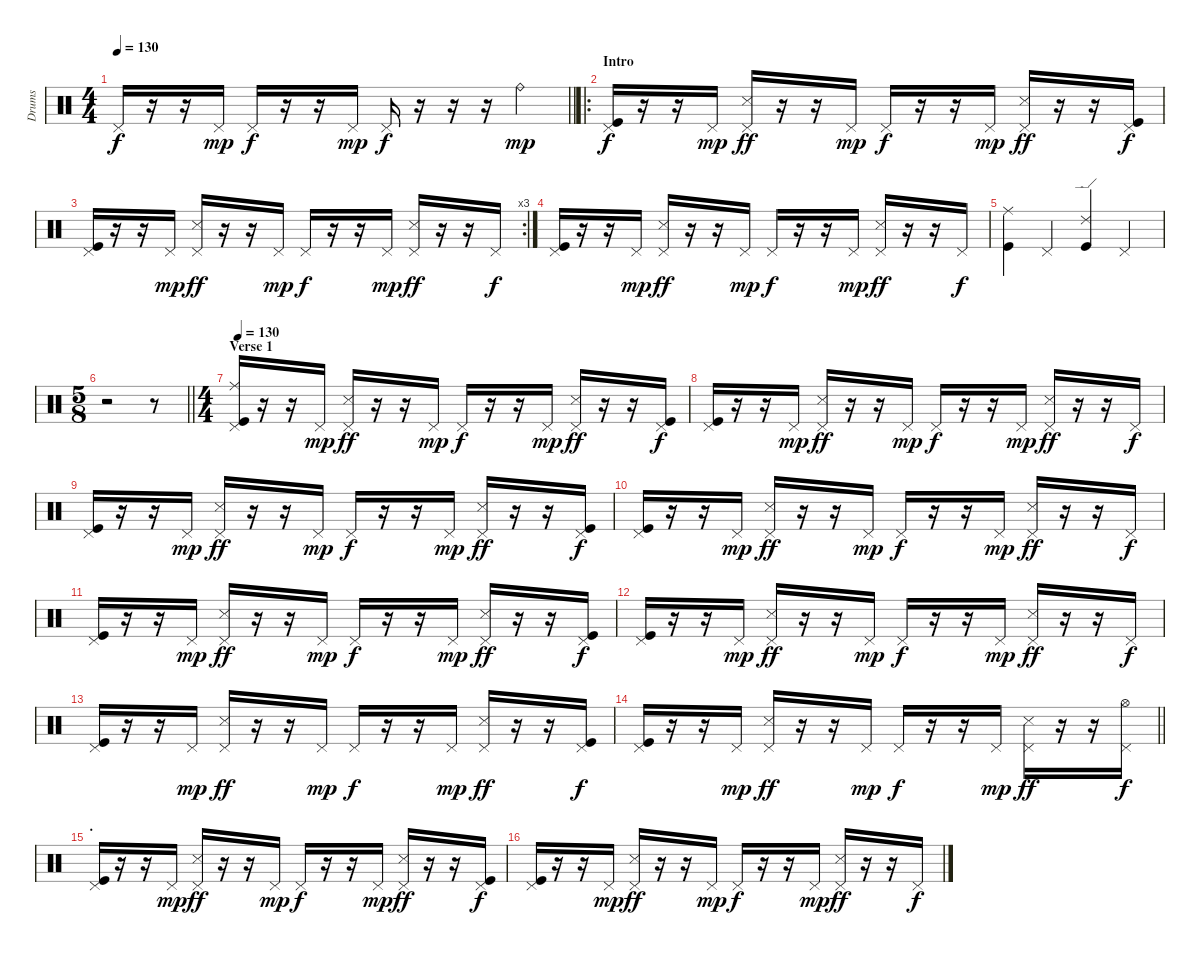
\track ("Drums" "Drums") {instrument percussion}
\staff {score}
\articulation defaults
\ts (4 4)
\tempo 130
\clef neutral
\barLineRight lightlight
\ks c "Pedal Hi-Hat (hit)".16{dy f}
r.16 r.16 "Pedal Hi-Hat (hit)".16{dy mp} "Pedal Hi-Hat (hit)".16{dy f} r.16 r.16 "Pedal Hi-Hat (hit)".16{dy mp} "Pedal Hi-Hat (hit)".16{dy f} r.16 r.16 r.16 "Ride (bell)".4{dy mp} |
\ro
\section ("" "Intro")
("Pedal Hi-Hat (hit)" "Kick (hit)").16{dy f} r.16 r.16 "Pedal Hi-Hat (hit)".16{dy mp} ("Pedal Hi-Hat (hit)" "Snare (side stick) 3").16{dy ff} r.16 r.16 "Pedal Hi-Hat (hit)".16{dy mp} "Pedal Hi-Hat (hit)".16{dy f} r.16 r.16 "Pedal Hi-Hat (hit)".16{dy mp} ("Pedal Hi-Hat (hit)" "Snare (side stick) 3").16{dy ff} r.16 r.16 ("Pedal Hi-Hat (hit)" "Kick (hit)").16{dy f} |
\rc 3
("Pedal Hi-Hat (hit)" "Kick (hit)").16 r.16 r.16 "Pedal Hi-Hat (hit)".16{dy mp} ("Pedal Hi-Hat (hit)" "Snare (side stick) 3").16{dy ff} r.16 r.16 "Pedal Hi-Hat (hit)".16{dy mp} "Pedal Hi-Hat (hit)".16{dy f} r.16 r.16 "Pedal Hi-Hat (hit)".16{dy mp} ("Pedal Hi-Hat (hit)" "Snare (side stick) 3").16{dy ff} r.16 r.16 "Pedal Hi-Hat (hit)".16{dy f} |
("Pedal Hi-Hat (hit)" "Kick (hit)").16 r.16 r.16 "Pedal Hi-Hat (hit)".16{dy mp} ("Pedal Hi-Hat (hit)" "Snare (side stick) 3").16{dy ff} r.16 r.16 "Pedal Hi-Hat (hit)".16{dy mp} "Pedal Hi-Hat (hit)".16{dy f} r.16 r.16 "Pedal Hi-Hat (hit)".16{dy mp} ("Pedal Hi-Hat (hit)" "Snare (side stick) 3").16{dy ff} r.16 r.16 "Pedal Hi-Hat (hit)".16{dy f} |
("Ride (middle)" "Kick (hit)").4 "Pedal Hi-Hat (hit)".4 ("Ride (edge) 2" "Kick (hit)").4 "Pedal Hi-Hat (hit)".4 |
\ts (5 8)
\barLineRight lightlight
r.2 r.8 |
\ts (4 4)
\section ("" "Verse 1")
\tempo 130
("Pedal Hi-Hat (hit)" "Ride (middle)" "Kick (hit)").16 r.16 r.16 "Pedal Hi-Hat (hit)".16{dy mp} ("Pedal Hi-Hat (hit)" "Snare (side stick) 3").16{dy ff} r.16 r.16 "Pedal Hi-Hat (hit)".16{dy mp} "Pedal Hi-Hat (hit)".16{dy f} r.16 r.16 "Pedal Hi-Hat (hit)".16{dy mp} ("Pedal Hi-Hat (hit)" "Snare (side stick) 3").16{dy ff} r.16 r.16 ("Pedal Hi-Hat (hit)" "Kick (hit)").16{dy f} |
("Pedal Hi-Hat (hit)" "Kick (hit)").16 r.16 r.16 "Pedal Hi-Hat (hit)".16{dy mp} ("Pedal Hi-Hat (hit)" "Snare (side stick) 3").16{dy ff} r.16 r.16 "Pedal Hi-Hat (hit)".16{dy mp} "Pedal Hi-Hat (hit)".16{dy f} r.16 r.16 "Pedal Hi-Hat (hit)".16{dy mp} ("Pedal Hi-Hat (hit)" "Snare (side stick) 3").16{dy ff} r.16 r.16 "Pedal Hi-Hat (hit)".16{dy f} |
("Pedal Hi-Hat (hit)" "Kick (hit)").16 r.16 r.16 "Pedal Hi-Hat (hit)".16{dy mp} ("Pedal Hi-Hat (hit)" "Snare (side stick) 3").16{dy ff} r.16 r.16 "Pedal Hi-Hat (hit)".16{dy mp} "Pedal Hi-Hat (hit)".16{dy f} r.16 r.16 "Pedal Hi-Hat (hit)".16{dy mp} ("Pedal Hi-Hat (hit)" "Snare (side stick) 3").16{dy ff} r.16 r.16 ("Pedal Hi-Hat (hit)" "Kick (hit)").16{dy f} |
("Pedal Hi-Hat (hit)" "Kick (hit)").16 r.16 r.16 "Pedal Hi-Hat (hit)".16{dy mp} ("Pedal Hi-Hat (hit)" "Snare (side stick) 3").16{dy ff} r.16 r.16 "Pedal Hi-Hat (hit)".16{dy mp} "Pedal Hi-Hat (hit)".16{dy f} r.16 r.16 "Pedal Hi-Hat (hit)".16{dy mp} ("Pedal Hi-Hat (hit)" "Snare (side stick) 3").16{dy ff} r.16 r.16 "Pedal Hi-Hat (hit)".16{dy f} |
("Pedal Hi-Hat (hit)" "Kick (hit)").16 r.16 r.16 "Pedal Hi-Hat (hit)".16{dy mp} ("Pedal Hi-Hat (hit)" "Snare (side stick) 3").16{dy ff} r.16 r.16 "Pedal Hi-Hat (hit)".16{dy mp} "Pedal Hi-Hat (hit)".16{dy f} r.16 r.16 "Pedal Hi-Hat (hit)".16{dy mp} ("Pedal Hi-Hat (hit)" "Snare (side stick) 3").16{dy ff} r.16 r.16 ("Pedal Hi-Hat (hit)" "Kick (hit)").16{dy f} |
("Pedal Hi-Hat (hit)" "Kick (hit)").16 r.16 r.16 "Pedal Hi-Hat (hit)".16{dy mp} ("Pedal Hi-Hat (hit)" "Snare (side stick) 3").16{dy ff} r.16 r.16 "Pedal Hi-Hat (hit)".16{dy mp} "Pedal Hi-Hat (hit)".16{dy f} r.16 r.16 "Pedal Hi-Hat (hit)".16{dy mp} ("Pedal Hi-Hat (hit)" "Snare (side stick) 3").16{dy ff} r.16 r.16 "Pedal Hi-Hat (hit)".16{dy f} |
("Pedal Hi-Hat (hit)" "Kick (hit)").16 r.16 r.16 "Pedal Hi-Hat (hit)".16{dy mp} ("Pedal Hi-Hat (hit)" "Snare (side stick) 3").16{dy ff} r.16 r.16 "Pedal Hi-Hat (hit)".16{dy mp} "Pedal Hi-Hat (hit)".16{dy f} r.16 r.16 "Pedal Hi-Hat (hit)".16{dy mp} ("Pedal Hi-Hat (hit)" "Snare (side stick) 3").16{dy ff} r.16 r.16 ("Pedal Hi-Hat (hit)" "Kick (hit)").16{dy f} |
\barLineRight lightlight
("Pedal Hi-Hat (hit)" "Kick (hit)").16 r.16 r.16 "Pedal Hi-Hat (hit)".16{dy mp} ("Pedal Hi-Hat (hit)" "Snare (side stick) 3").16{dy ff} r.16 r.16 "Pedal Hi-Hat (hit)".16{dy mp} "Pedal Hi-Hat (hit)".16{dy f} r.16 r.16 "Pedal Hi-Hat (hit)".16{dy mp} ("Pedal Hi-Hat (hit)" "Snare (side stick) 3").16{dy ff} r.16 r.16 ("Pedal Hi-Hat (hit)" "Hi-Hat (open)").16{dy f} |
\section ("" ".")
("Pedal Hi-Hat (hit)" "Kick (hit)").16 r.16 r.16 "Pedal Hi-Hat (hit)".16{dy mp} ("Pedal Hi-Hat (hit)" "Snare (side stick) 3").16{dy ff} r.16 r.16 "Pedal Hi-Hat (hit)".16{dy mp} "Pedal Hi-Hat (hit)".16{dy f} r.16 r.16 "Pedal Hi-Hat (hit)".16{dy mp} ("Pedal Hi-Hat (hit)" "Snare (side stick) 3").16{dy ff} r.16 r.16 ("Pedal Hi-Hat (hit)" "Kick (hit)").16{dy f} |
("Pedal Hi-Hat (hit)" "Kick (hit)").16 r.16 r.16 "Pedal Hi-Hat (hit)".16{dy mp} ("Pedal Hi-Hat (hit)" "Snare (side stick) 3").16{dy ff} r.16 r.16 "Pedal Hi-Hat (hit)".16{dy mp} "Pedal Hi-Hat (hit)".16{dy f} r.16 r.16 "Pedal Hi-Hat (hit)".16{dy mp} ("Pedal Hi-Hat (hit)" "Snare (side stick) 3").16{dy ff} r.16 r.16 "Pedal Hi-Hat (hit)".16{dy f}
